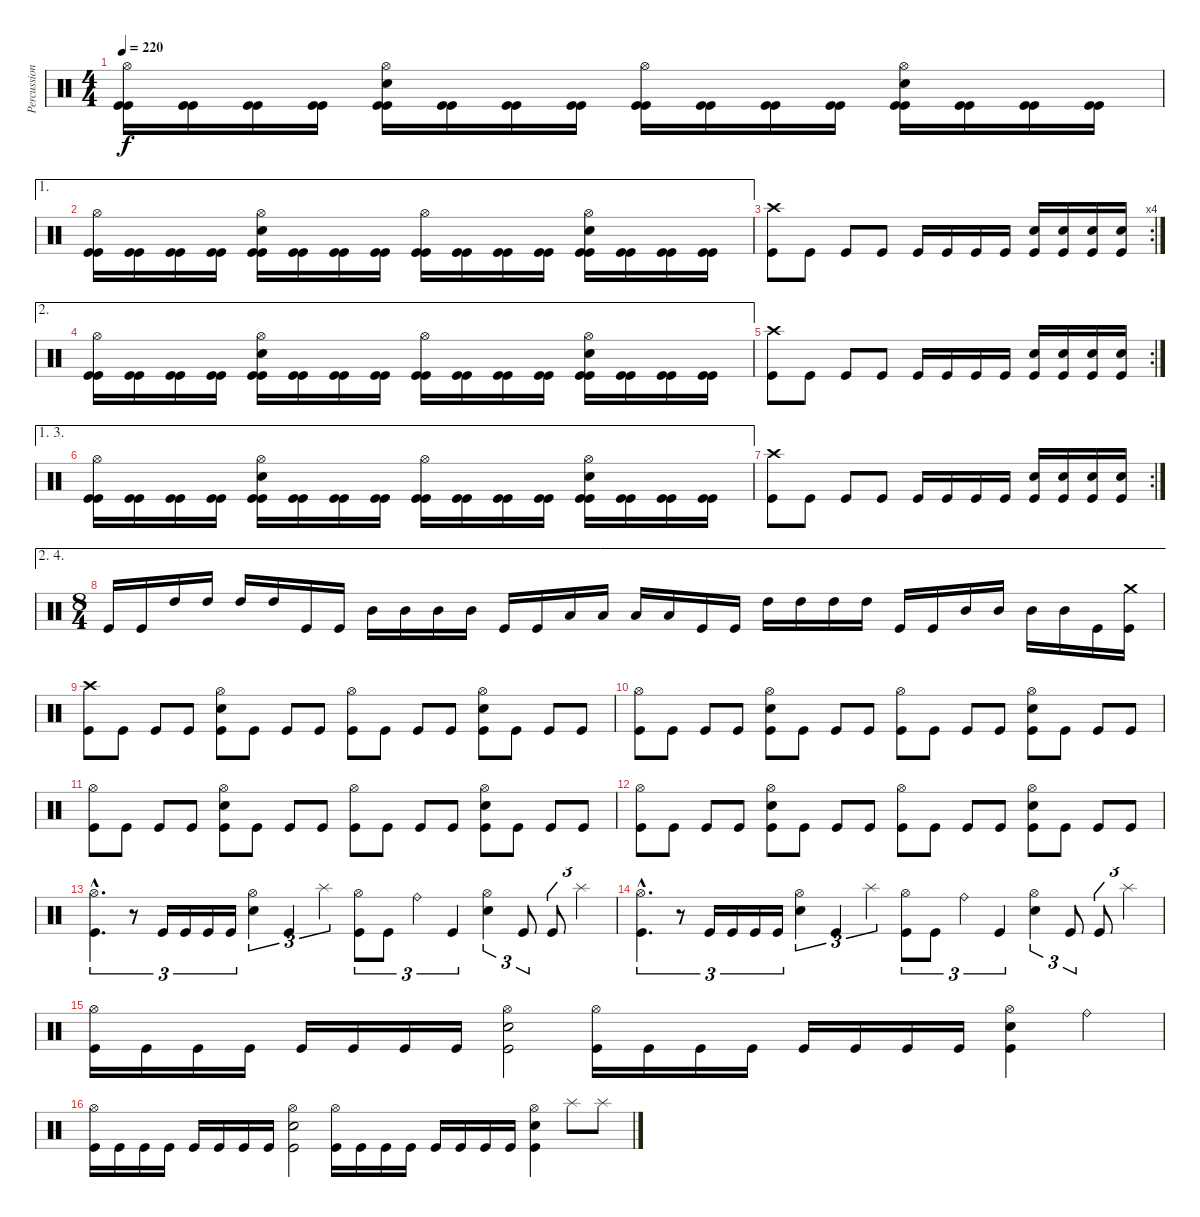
\track ("Percussion" "Percussion") {instrument percussion}
\staff {score}
\articulation defaults
\ts (4 4)
\tempo 220
\clef neutral
\ks c
("Hi-Hat (open)" "Kick (hit)" "Kick (hit)").16{dy f} ("Kick (hit)" "Kick (hit)").16 ("Kick (hit)" "Kick (hit)").16 ("Kick (hit)" "Kick (hit)").16 ("Hi-Hat (open)" "Snare (hit) 2" "Kick (hit)" "Kick (hit)").16 ("Kick (hit)" "Kick (hit)").16 ("Kick (hit)" "Kick (hit)").16 ("Kick (hit)" "Kick (hit)").16 ("Hi-Hat (open)" "Kick (hit)" "Kick (hit)").16 ("Kick (hit)" "Kick (hit)").16 ("Kick (hit)" "Kick (hit)").16 ("Kick (hit)" "Kick (hit)").16 ("Hi-Hat (open)" "Snare (hit) 2" "Kick (hit)" "Kick (hit)").16 ("Kick (hit)" "Kick (hit)").16 ("Kick (hit)" "Kick (hit)").16 ("Kick (hit)" "Kick (hit)").16 |
\ae 1
("Hi-Hat (open)" "Kick (hit)" "Kick (hit)").16 ("Kick (hit)" "Kick (hit)").16 ("Kick (hit)" "Kick (hit)").16 ("Kick (hit)" "Kick (hit)").16 ("Hi-Hat (open)" "Snare (hit) 2" "Kick (hit)" "Kick (hit)").16 ("Kick (hit)" "Kick (hit)").16 ("Kick (hit)" "Kick (hit)").16 ("Kick (hit)" "Kick (hit)").16 ("Hi-Hat (open)" "Kick (hit)" "Kick (hit)").16 ("Kick (hit)" "Kick (hit)").16 ("Kick (hit)" "Kick (hit)").16 ("Kick (hit)" "Kick (hit)").16 ("Hi-Hat (open)" "Snare (hit) 2" "Kick (hit)" "Kick (hit)").16 ("Kick (hit)" "Kick (hit)").16 ("Kick (hit)" "Kick (hit)").16 ("Kick (hit)" "Kick (hit)").16 |
\rc 4
("Crash high (hit)" "Kick (hit)").8 "Kick (hit)".8 "Kick (hit)".8 "Kick (hit)".8 "Kick (hit)".16 "Kick (hit)".16 "Kick (hit)".16 "Kick (hit)".16 ("Snare (hit) 2" "Kick (hit)").16 ("Snare (hit) 2" "Kick (hit)").16 ("Snare (hit) 2" "Kick (hit)").16 ("Snare (hit) 2" "Kick (hit)").16 |
\ae 2
("Hi-Hat (open)" "Kick (hit)" "Kick (hit)").16 ("Kick (hit)" "Kick (hit)").16 ("Kick (hit)" "Kick (hit)").16 ("Kick (hit)" "Kick (hit)").16 ("Hi-Hat (open)" "Snare (hit) 2" "Kick (hit)" "Kick (hit)").16 ("Kick (hit)" "Kick (hit)").16 ("Kick (hit)" "Kick (hit)").16 ("Kick (hit)" "Kick (hit)").16 ("Hi-Hat (open)" "Kick (hit)" "Kick (hit)").16 ("Kick (hit)" "Kick (hit)").16 ("Kick (hit)" "Kick (hit)").16 ("Kick (hit)" "Kick (hit)").16 ("Hi-Hat (open)" "Snare (hit) 2" "Kick (hit)" "Kick (hit)").16 ("Kick (hit)" "Kick (hit)").16 ("Kick (hit)" "Kick (hit)").16 ("Kick (hit)" "Kick (hit)").16 |
\rc 2
("Crash high (hit)" "Kick (hit)").8 "Kick (hit)".8 "Kick (hit)".8 "Kick (hit)".8 "Kick (hit)".16 "Kick (hit)".16 "Kick (hit)".16 "Kick (hit)".16 ("Snare (hit) 2" "Kick (hit)").16 ("Snare (hit) 2" "Kick (hit)").16 ("Snare (hit) 2" "Kick (hit)").16 ("Snare (hit) 2" "Kick (hit)").16 |
\ae (1 3)
("Hi-Hat (open)" "Kick (hit)" "Kick (hit)").16 ("Kick (hit)" "Kick (hit)").16 ("Kick (hit)" "Kick (hit)").16 ("Kick (hit)" "Kick (hit)").16 ("Hi-Hat (open)" "Snare (hit) 2" "Kick (hit)" "Kick (hit)").16 ("Kick (hit)" "Kick (hit)").16 ("Kick (hit)" "Kick (hit)").16 ("Kick (hit)" "Kick (hit)").16 ("Hi-Hat (open)" "Kick (hit)" "Kick (hit)").16 ("Kick (hit)" "Kick (hit)").16 ("Kick (hit)" "Kick (hit)").16 ("Kick (hit)" "Kick (hit)").16 ("Hi-Hat (open)" "Snare (hit) 2" "Kick (hit)" "Kick (hit)").16 ("Kick (hit)" "Kick (hit)").16 ("Kick (hit)" "Kick (hit)").16 ("Kick (hit)" "Kick (hit)").16 |
\rc 2
("Crash high (hit)" "Kick (hit)").8 "Kick (hit)".8 "Kick (hit)".8 "Kick (hit)".8 "Kick (hit)".16 "Kick (hit)".16 "Kick (hit)".16 "Kick (hit)".16 ("Snare (hit) 2" "Kick (hit)").16 ("Snare (hit) 2" "Kick (hit)").16 ("Snare (hit) 2" "Kick (hit)").16 ("Snare (hit) 2" "Kick (hit)").16 |
\ae (2 4)
\ts (8 4)
"Kick (hit)".16 "Kick (hit)".16 "High Tom (hit)".16 "High Tom (hit)".16 "High Tom (hit)".16 "High Tom (hit)".16 "Kick (hit)".16 "Kick (hit)".16 "Mid Tom (hit)".16 "Mid Tom (hit)".16 "Mid Tom (hit)".16 "Mid Tom (hit)".16 "Kick (hit)".16 "Kick (hit)".16 "Low Tom (hit)".16 "Low Tom (hit)".16 "Low Tom (hit)".16 "Low Tom (hit)".16 "Kick (hit)".16 "Kick (hit)".16 "High Tom (hit)".16 "High Tom (hit)".16 "High Tom (hit)".16 "High Tom (hit)".16 "Kick (hit)".16 "Kick (hit)".16 "Mid Tom (hit)".16 "Mid Tom (hit)".16 "Mid Tom (hit)".16 "Mid Tom (hit)".16 "Kick (hit)".16 ("Crash medium (hit)" "Kick (hit)").16 |
("Crash high (hit)" "Kick (hit)").8 "Kick (hit)".8 "Kick (hit)".8 "Kick (hit)".8 ("Hi-Hat (open)" "Snare (hit) 2" "Kick (hit)").8 "Kick (hit)".8 "Kick (hit)".8 "Kick (hit)".8 ("Hi-Hat (open)" "Kick (hit)").8 "Kick (hit)".8 "Kick (hit)".8 "Kick (hit)".8 ("Hi-Hat (open)" "Snare (hit) 2" "Kick (hit)").8 "Kick (hit)".8 "Kick (hit)".8 "Kick (hit)".8 |
("Hi-Hat (open)" "Kick (hit)").8 "Kick (hit)".8 "Kick (hit)".8 "Kick (hit)".8 ("Hi-Hat (open)" "Snare (hit) 2" "Kick (hit)").8 "Kick (hit)".8 "Kick (hit)".8 "Kick (hit)".8 ("Hi-Hat (open)" "Kick (hit)").8 "Kick (hit)".8 "Kick (hit)".8 "Kick (hit)".8 ("Hi-Hat (open)" "Snare (hit) 2" "Kick (hit)").8 "Kick (hit)".8 "Kick (hit)".8 "Kick (hit)".8 |
("Hi-Hat (open)" "Kick (hit)").8 "Kick (hit)".8 "Kick (hit)".8 "Kick (hit)".8 ("Hi-Hat (open)" "Snare (hit) 2" "Kick (hit)").8 "Kick (hit)".8 "Kick (hit)".8 "Kick (hit)".8 ("Hi-Hat (open)" "Kick (hit)").8 "Kick (hit)".8 "Kick (hit)".8 "Kick (hit)".8 ("Hi-Hat (open)" "Snare (hit) 2" "Kick (hit)").8 "Kick (hit)".8 "Kick (hit)".8 "Kick (hit)".8 |
("Hi-Hat (open)" "Kick (hit)").8 "Kick (hit)".8 "Kick (hit)".8 "Kick (hit)".8 ("Hi-Hat (open)" "Snare (hit) 2" "Kick (hit)").8 "Kick (hit)".8 "Kick (hit)".8 "Kick (hit)".8 ("Hi-Hat (open)" "Kick (hit)").8 "Kick (hit)".8 "Kick (hit)".8 "Kick (hit)".8 ("Hi-Hat (open)" "Snare (hit) 2" "Kick (hit)").8 "Kick (hit)".8 "Kick (hit)".8 "Kick (hit)".8 |
("Hi-Hat (open)"{hac} "Kick (hit)"{hac}).4{d tu (3 2)} r.8{tu (3 2)} "Kick (hit)".16{tu (3 2)} "Kick (hit)".16{tu (3 2)} "Kick (hit)".16{tu (3 2)} "Kick (hit)".16{tu (3 2)} ("Hi-Hat (open)" "Snare (hit) 2").4{tu (3 2)} "Kick (hit)".4{tu (3 2)} "Splash (hit)".4{tu (3 2)} ("Hi-Hat (open)" "Kick (hit)").8{tu (3 2)} "Kick (hit)".8{tu (3 2)} "Ride (bell)".4{tu (3 2)} "Kick (hit)".4{tu (3 2)} ("Hi-Hat (open)" "Snare (hit) 2").4{tu (3 2)} "Kick (hit)".8{tu (3 2)} "Kick (hit)".8{tu (3 2)} "Splash (hit)".4{tu (3 2)} |
("Hi-Hat (open)"{hac} "Kick (hit)"{hac}).4{d tu (3 2)} r.8{tu (3 2)} "Kick (hit)".16{tu (3 2)} "Kick (hit)".16{tu (3 2)} "Kick (hit)".16{tu (3 2)} "Kick (hit)".16{tu (3 2)} ("Hi-Hat (open)" "Snare (hit) 2").4{tu (3 2)} "Kick (hit)".4{tu (3 2)} "Splash (hit)".4{tu (3 2)} ("Hi-Hat (open)" "Kick (hit)").8{tu (3 2)} "Kick (hit)".8{tu (3 2)} "Ride (bell)".4{tu (3 2)} "Kick (hit)".4{tu (3 2)} ("Hi-Hat (open)" "Snare (hit) 2").4{tu (3 2)} "Kick (hit)".8{tu (3 2)} "Kick (hit)".8{tu (3 2)} "Splash (hit)".4{tu (3 2)} |
("Hi-Hat (open)" "Kick (hit)").16 "Kick (hit)".16 "Kick (hit)".16 "Kick (hit)".16 "Kick (hit)".16 "Kick (hit)".16 "Kick (hit)".16 "Kick (hit)".16 ("Hi-Hat (open)" "Snare (hit) 2" "Kick (hit)").2 ("Hi-Hat (open)" "Kick (hit)").16 "Kick (hit)".16 "Kick (hit)".16 "Kick (hit)".16 "Kick (hit)".16 "Kick (hit)".16 "Kick (hit)".16 "Kick (hit)".16 ("Hi-Hat (open)" "Snare (hit) 2" "Kick (hit)").4 "Ride (bell)".4 |
("Hi-Hat (open)" "Kick (hit)").16 "Kick (hit)".16 "Kick (hit)".16 "Kick (hit)".16 "Kick (hit)".16 "Kick (hit)".16 "Kick (hit)".16 "Kick (hit)".16 ("Hi-Hat (open)" "Snare (hit) 2" "Kick (hit)").2 ("Hi-Hat (open)" "Kick (hit)").16 "Kick (hit)".16 "Kick (hit)".16 "Kick (hit)".16 "Kick (hit)".16 "Kick (hit)".16 "Kick (hit)".16 "Kick (hit)".16 ("Hi-Hat (open)" "Snare (hit) 2" "Kick (hit)").4 "Splash (hit)".8 "Splash (hit)".8
